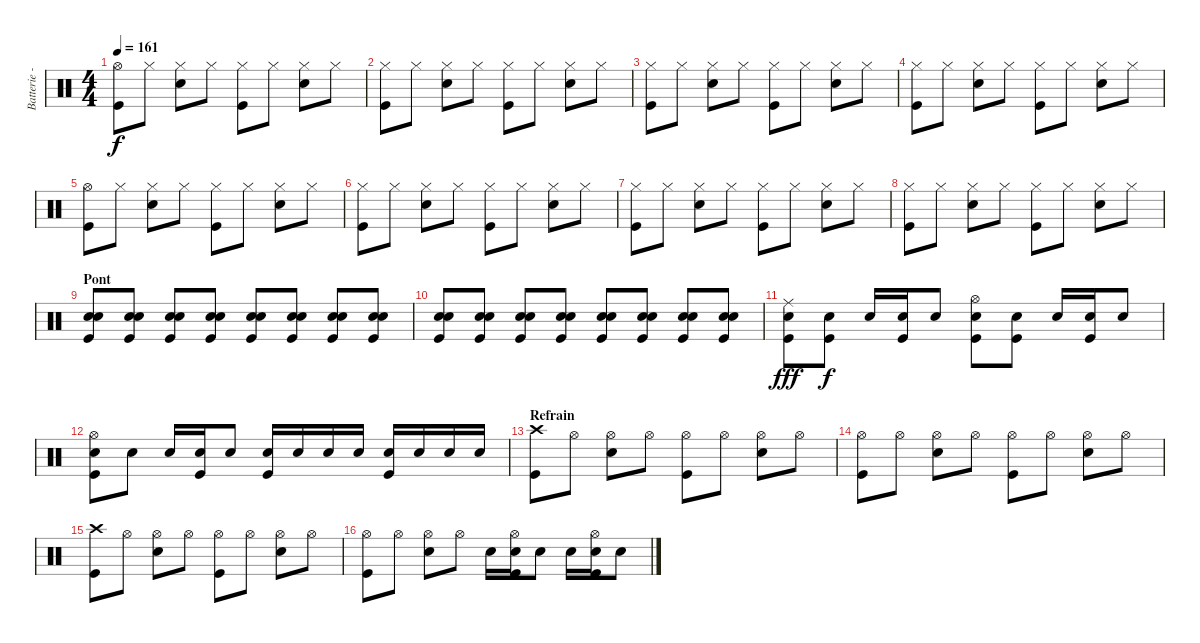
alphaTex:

\track ("Batterie - Alex" "Batterie -") {instrument percussion}
\staff {score}
\articulation defaults
\ts (4 4)
\tempo 161
\clef neutral
\ks c
("Hi-Hat (open)" "Kick (hit)").8{dy f} "Hi-Hat (closed)".8 ("Hi-Hat (closed)" "Snare (hit) 2").8 "Hi-Hat (closed)".8 ("Hi-Hat (closed)" "Kick (hit)").8 "Hi-Hat (closed)".8 ("Hi-Hat (closed)" "Snare (hit) 2").8 "Hi-Hat (closed)".8 |
("Hi-Hat (closed)" "Kick (hit)").8 "Hi-Hat (closed)".8 ("Hi-Hat (closed)" "Snare (hit) 2").8 "Hi-Hat (closed)".8 ("Hi-Hat (closed)" "Kick (hit)").8 "Hi-Hat (closed)".8 ("Hi-Hat (closed)" "Snare (hit) 2").8 "Hi-Hat (closed)".8 |
("Hi-Hat (closed)" "Kick (hit)").8 "Hi-Hat (closed)".8 ("Hi-Hat (closed)" "Snare (hit) 2").8 "Hi-Hat (closed)".8 ("Hi-Hat (closed)" "Kick (hit)").8 "Hi-Hat (closed)".8 ("Hi-Hat (closed)" "Snare (hit) 2").8 "Hi-Hat (closed)".8 |
("Hi-Hat (closed)" "Kick (hit)").8 "Hi-Hat (closed)".8 ("Hi-Hat (closed)" "Snare (hit) 2").8 "Hi-Hat (closed)".8 ("Hi-Hat (closed)" "Kick (hit)").8 "Hi-Hat (closed)".8 ("Hi-Hat (closed)" "Snare (hit) 2").8 "Hi-Hat (closed)".8 |
("Hi-Hat (open)" "Kick (hit)").8 "Hi-Hat (closed)".8 ("Hi-Hat (closed)" "Snare (hit) 2").8 "Hi-Hat (closed)".8 ("Hi-Hat (closed)" "Kick (hit)").8 "Hi-Hat (closed)".8 ("Hi-Hat (closed)" "Snare (hit) 2").8 "Hi-Hat (closed)".8 |
("Hi-Hat (closed)" "Kick (hit)").8 "Hi-Hat (closed)".8 ("Hi-Hat (closed)" "Snare (hit) 2").8 "Hi-Hat (closed)".8 ("Hi-Hat (closed)" "Kick (hit)").8 "Hi-Hat (closed)".8 ("Hi-Hat (closed)" "Snare (hit) 2").8 "Hi-Hat (closed)".8 |
("Hi-Hat (closed)" "Kick (hit)").8 "Hi-Hat (closed)".8 ("Hi-Hat (closed)" "Snare (hit) 2").8 "Hi-Hat (closed)".8 ("Hi-Hat (closed)" "Kick (hit)").8 "Hi-Hat (closed)".8 ("Hi-Hat (closed)" "Snare (hit) 2").8 "Hi-Hat (closed)".8 |
("Hi-Hat (closed)" "Kick (hit)").8 "Hi-Hat (closed)".8 ("Hi-Hat (closed)" "Snare (hit) 2").8 "Hi-Hat (closed)".8 ("Hi-Hat (closed)" "Kick (hit)").8 "Hi-Hat (closed)".8 ("Hi-Hat (closed)" "Snare (hit) 2").8 "Hi-Hat (closed)".8 |
\section ("" "Pont")
("Electric Snare (hit)" "Snare (hit) 2" "Kick (hit)").8 ("Electric Snare (hit)" "Snare (hit) 2" "Kick (hit)").8 ("Electric Snare (hit)" "Snare (hit) 2" "Kick (hit)").8 ("Electric Snare (hit)" "Snare (hit) 2" "Kick (hit)").8 ("Electric Snare (hit)" "Snare (hit) 2" "Kick (hit)").8 ("Electric Snare (hit)" "Snare (hit) 2" "Kick (hit)").8 ("Electric Snare (hit)" "Snare (hit) 2" "Kick (hit)").8 ("Electric Snare (hit)" "Snare (hit) 2" "Kick (hit)").8 |
("Electric Snare (hit)" "Snare (hit) 2" "Kick (hit)").8 ("Electric Snare (hit)" "Snare (hit) 2" "Kick (hit)").8 ("Electric Snare (hit)" "Snare (hit) 2" "Kick (hit)").8 ("Electric Snare (hit)" "Snare (hit) 2" "Kick (hit)").8 ("Electric Snare (hit)" "Snare (hit) 2" "Kick (hit)").8 ("Electric Snare (hit)" "Snare (hit) 2" "Kick (hit)").8 ("Electric Snare (hit)" "Snare (hit) 2" "Kick (hit)").8 ("Electric Snare (hit)" "Snare (hit) 2" "Kick (hit)").8 |
("Ride (middle)" "Electric Snare (hit)" "Kick (hit)").8{dy fff} ("Electric Snare (hit)" "Kick (hit)").8{dy f} "Electric Snare (hit)".16 ("Electric Snare (hit)" "Kick (hit)").16 "Electric Snare (hit)".8 ("Hi-Hat (open)" "Electric Snare (hit)" "Kick (hit)").8 ("Electric Snare (hit)" "Kick (hit)").8 "Electric Snare (hit)".16 ("Electric Snare (hit)" "Kick (hit)").16 "Electric Snare (hit)".8 |
("Hi-Hat (open)" "Electric Snare (hit)" "Kick (hit)").8 "Electric Snare (hit)".8 "Electric Snare (hit)".16 ("Electric Snare (hit)" "Kick (hit)").16 "Electric Snare (hit)".8 ("Electric Snare (hit)" "Kick (hit)").16 "Electric Snare (hit)".16 "Electric Snare (hit)".16 "Electric Snare (hit)".16 ("Electric Snare (hit)" "Kick (hit)").16 "Electric Snare (hit)".16 "Electric Snare (hit)".16 "Electric Snare (hit)".16 |
\section ("" "Refrain")
("Crash high (hit)" "Kick (hit)").8 "Hi-Hat (open)".8 ("Hi-Hat (open)" "Electric Snare (hit)").8 "Hi-Hat (open)".8 ("Hi-Hat (open)" "Kick (hit)").8 "Hi-Hat (open)".8 ("Hi-Hat (open)" "Electric Snare (hit)").8 "Hi-Hat (open)".8 |
("Hi-Hat (open)" "Kick (hit)").8 "Hi-Hat (open)".8 ("Hi-Hat (open)" "Electric Snare (hit)").8 "Hi-Hat (open)".8 ("Hi-Hat (open)" "Kick (hit)").8 "Hi-Hat (open)".8 ("Hi-Hat (open)" "Electric Snare (hit)").8 "Hi-Hat (open)".8 |
("Crash high (hit)" "Kick (hit)").8 "Hi-Hat (open)".8 ("Hi-Hat (open)" "Electric Snare (hit)").8 "Hi-Hat (open)".8 ("Hi-Hat (open)" "Kick (hit)").8 "Hi-Hat (open)".8 ("Hi-Hat (open)" "Electric Snare (hit)").8 "Hi-Hat (open)".8 |
("Hi-Hat (open)" "Kick (hit)").8 "Hi-Hat (open)".8 ("Hi-Hat (open)" "Electric Snare (hit)").8 "Hi-Hat (open)".8 "Electric Snare (hit)".16 ("Hi-Hat (open)" "Electric Snare (hit)" "Kick (hit)").16 "Electric Snare (hit)".8 "Electric Snare (hit)".16 ("Hi-Hat (open)" "Electric Snare (hit)" "Kick (hit)").16 "Electric Snare (hit)".8
